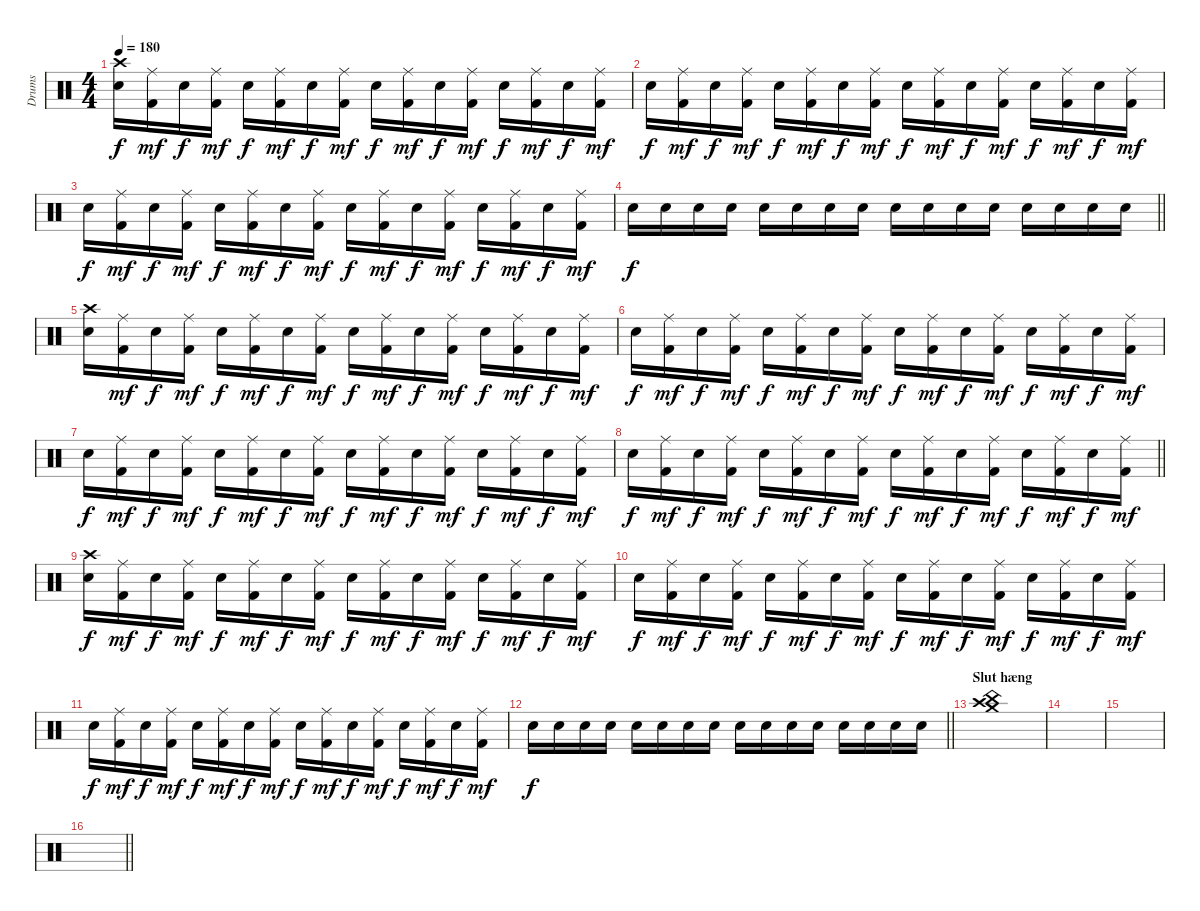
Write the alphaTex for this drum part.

\track ("Drums" "Drums") {instrument percussion}
\staff {score}
\articulation defaults
\ts (4 4)
\tempo 180
\clef neutral
\ks c
("Crash high (hit)" "Snare (hit) 2").16{dy f} ("Ride (middle)" "Kick (hit) 2").16{dy mf} "Snare (hit) 2".16{dy f} ("Ride (middle)" "Kick (hit) 2").16{dy mf} "Snare (hit) 2".16{dy f} ("Ride (middle)" "Kick (hit) 2").16{dy mf} "Snare (hit) 2".16{dy f} ("Ride (middle)" "Kick (hit) 2").16{dy mf} "Snare (hit) 2".16{dy f} ("Ride (middle)" "Kick (hit) 2").16{dy mf} "Snare (hit) 2".16{dy f} ("Ride (middle)" "Kick (hit) 2").16{dy mf} "Snare (hit) 2".16{dy f} ("Ride (middle)" "Kick (hit) 2").16{dy mf} "Snare (hit) 2".16{dy f} ("Ride (middle)" "Kick (hit) 2").16{dy mf} |
"Snare (hit) 2".16{dy f} ("Ride (middle)" "Kick (hit) 2").16{dy mf} "Snare (hit) 2".16{dy f} ("Ride (middle)" "Kick (hit) 2").16{dy mf} "Snare (hit) 2".16{dy f} ("Ride (middle)" "Kick (hit) 2").16{dy mf} "Snare (hit) 2".16{dy f} ("Ride (middle)" "Kick (hit) 2").16{dy mf} "Snare (hit) 2".16{dy f} ("Ride (middle)" "Kick (hit) 2").16{dy mf} "Snare (hit) 2".16{dy f} ("Ride (middle)" "Kick (hit) 2").16{dy mf} "Snare (hit) 2".16{dy f} ("Ride (middle)" "Kick (hit) 2").16{dy mf} "Snare (hit) 2".16{dy f} ("Ride (middle)" "Kick (hit) 2").16{dy mf} |
"Snare (hit) 2".16{dy f} ("Ride (middle)" "Kick (hit) 2").16{dy mf} "Snare (hit) 2".16{dy f} ("Ride (middle)" "Kick (hit) 2").16{dy mf} "Snare (hit) 2".16{dy f} ("Ride (middle)" "Kick (hit) 2").16{dy mf} "Snare (hit) 2".16{dy f} ("Ride (middle)" "Kick (hit) 2").16{dy mf} "Snare (hit) 2".16{dy f} ("Ride (middle)" "Kick (hit) 2").16{dy mf} "Snare (hit) 2".16{dy f} ("Ride (middle)" "Kick (hit) 2").16{dy mf} "Snare (hit) 2".16{dy f} ("Ride (middle)" "Kick (hit) 2").16{dy mf} "Snare (hit) 2".16{dy f} ("Ride (middle)" "Kick (hit) 2").16{dy mf} |
\barLineRight lightlight "Snare (hit) 2".16{dy f} "Snare (hit) 2".16 "Snare (hit) 2".16 "Snare (hit) 2".16 "Snare (hit) 2".16 "Snare (hit) 2".16 "Snare (hit) 2".16 "Snare (hit) 2".16 "Snare (hit) 2".16 "Snare (hit) 2".16 "Snare (hit) 2".16 "Snare (hit) 2".16 "Snare (hit) 2".16 "Snare (hit) 2".16 "Snare (hit) 2".16 "Snare (hit) 2".16
|
("Crash high (hit)" "Snare (hit) 2").16 ("Ride (middle)" "Kick (hit) 2").16{dy mf} "Snare (hit) 2".16{dy f} ("Ride (middle)" "Kick (hit) 2").16{dy mf} "Snare (hit) 2".16{dy f} ("Ride (middle)" "Kick (hit) 2").16{dy mf} "Snare (hit) 2".16{dy f} ("Ride (middle)" "Kick (hit) 2").16{dy mf} "Snare (hit) 2".16{dy f} ("Ride (middle)" "Kick (hit) 2").16{dy mf} "Snare (hit) 2".16{dy f} ("Ride (middle)" "Kick (hit) 2").16{dy mf} "Snare (hit) 2".16{dy f} ("Ride (middle)" "Kick (hit) 2").16{dy mf} "Snare (hit) 2".16{dy f} ("Ride (middle)" "Kick (hit) 2").16{dy mf} |
"Snare (hit) 2".16{dy f} ("Ride (middle)" "Kick (hit) 2").16{dy mf} "Snare (hit) 2".16{dy f} ("Ride (middle)" "Kick (hit) 2").16{dy mf} "Snare (hit) 2".16{dy f} ("Ride (middle)" "Kick (hit) 2").16{dy mf} "Snare (hit) 2".16{dy f} ("Ride (middle)" "Kick (hit) 2").16{dy mf} "Snare (hit) 2".16{dy f} ("Ride (middle)" "Kick (hit) 2").16{dy mf} "Snare (hit) 2".16{dy f} ("Ride (middle)" "Kick (hit) 2").16{dy mf} "Snare (hit) 2".16{dy f} ("Ride (middle)" "Kick (hit) 2").16{dy mf} "Snare (hit) 2".16{dy f} ("Ride (middle)" "Kick (hit) 2").16{dy mf} |
"Snare (hit) 2".16{dy f} ("Ride (middle)" "Kick (hit) 2").16{dy mf} "Snare (hit) 2".16{dy f} ("Ride (middle)" "Kick (hit) 2").16{dy mf} "Snare (hit) 2".16{dy f} ("Ride (middle)" "Kick (hit) 2").16{dy mf} "Snare (hit) 2".16{dy f} ("Ride (middle)" "Kick (hit) 2").16{dy mf} "Snare (hit) 2".16{dy f} ("Ride (middle)" "Kick (hit) 2").16{dy mf} "Snare (hit) 2".16{dy f} ("Ride (middle)" "Kick (hit) 2").16{dy mf} "Snare (hit) 2".16{dy f} ("Ride (middle)" "Kick (hit) 2").16{dy mf} "Snare (hit) 2".16{dy f} ("Ride (middle)" "Kick (hit) 2").16{dy mf} |
\barLineRight lightlight "Snare (hit) 2".16{dy f}
("Ride (middle)" "Kick (hit) 2").16{dy mf} "Snare (hit) 2".16{dy f} ("Ride (middle)" "Kick (hit) 2").16{dy mf} "Snare (hit) 2".16{dy f} ("Ride (middle)" "Kick (hit) 2").16{dy mf} "Snare (hit) 2".16{dy f} ("Ride (middle)" "Kick (hit) 2").16{dy mf} "Snare (hit) 2".16{dy f} ("Ride (middle)" "Kick (hit) 2").16{dy mf} "Snare (hit) 2".16{dy f} ("Ride (middle)" "Kick (hit) 2").16{dy mf} "Snare (hit) 2".16{dy f} ("Ride (middle)" "Kick (hit) 2").16{dy mf} "Snare (hit) 2".16{dy f} ("Ride (middle)" "Kick (hit) 2").16{dy mf} |
("Crash high (hit)" "Snare (hit) 2").16{dy f} ("Ride (middle)" "Kick (hit) 2").16{dy mf} "Snare (hit) 2".16{dy f} ("Ride (middle)" "Kick (hit) 2").16{dy mf} "Snare (hit) 2".16{dy f} ("Ride (middle)" "Kick (hit) 2").16{dy mf} "Snare (hit) 2".16{dy f} ("Ride (middle)" "Kick (hit) 2").16{dy mf} "Snare (hit) 2".16{dy f} ("Ride (middle)" "Kick (hit) 2").16{dy mf} "Snare (hit) 2".16{dy f} ("Ride (middle)" "Kick (hit) 2").16{dy mf} "Snare (hit) 2".16{dy f} ("Ride (middle)" "Kick (hit) 2").16{dy mf} "Snare (hit) 2".16{dy f} ("Ride (middle)" "Kick (hit) 2").16{dy mf} |
"Snare (hit) 2".16{dy f} ("Ride (middle)" "Kick (hit) 2").16{dy mf} "Snare (hit) 2".16{dy f} ("Ride (middle)" "Kick (hit) 2").16{dy mf} "Snare (hit) 2".16{dy f} ("Ride (middle)" "Kick (hit) 2").16{dy mf} "Snare (hit) 2".16{dy f} ("Ride (middle)" "Kick (hit) 2").16{dy mf} "Snare (hit) 2".16{dy f} ("Ride (middle)" "Kick (hit) 2").16{dy mf} "Snare (hit) 2".16{dy f} ("Ride (middle)" "Kick (hit) 2").16{dy mf} "Snare (hit) 2".16{dy f} ("Ride (middle)" "Kick (hit) 2").16{dy mf} "Snare (hit) 2".16{dy f} ("Ride (middle)" "Kick (hit) 2").16{dy mf} |
"Snare (hit) 2".16{dy f} ("Ride (middle)" "Kick (hit) 2").16{dy mf} "Snare (hit) 2".16{dy f} ("Ride (middle)" "Kick (hit) 2").16{dy mf} "Snare (hit) 2".16{dy f} ("Ride (middle)" "Kick (hit) 2").16{dy mf} "Snare (hit) 2".16{dy f} ("Ride (middle)" "Kick (hit) 2").16{dy mf} "Snare (hit) 2".16{dy f} ("Ride (middle)" "Kick (hit) 2").16{dy mf} "Snare (hit) 2".16{dy f} ("Ride (middle)" "Kick (hit) 2").16{dy mf} "Snare (hit) 2".16{dy f} ("Ride (middle)" "Kick (hit) 2").16{dy mf} "Snare (hit) 2".16{dy f} ("Ride (middle)" "Kick (hit) 2").16{dy mf} |
\barLineRight lightlight "Snare (hit) 2".16{dy f} "Snare (hit) 2".16 "Snare (hit) 2".16 "Snare (hit) 2".16 "Snare (hit) 2".16 "Snare (hit) 2".16 "Snare (hit) 2".16 "Snare (hit) 2".16 "Snare (hit) 2".16 "Snare (hit) 2".16 "Snare (hit) 2".16 "Snare (hit) 2".16 "Snare (hit) 2".16 "Snare (hit) 2".16 "Snare (hit) 2".16 "Snare (hit) 2".16
|
\section ("" "Slut hæng")
("Crash medium (hit)" "China (hit)" "Crash high (hit)").1 |
|
|
\barLineRight lightlight
